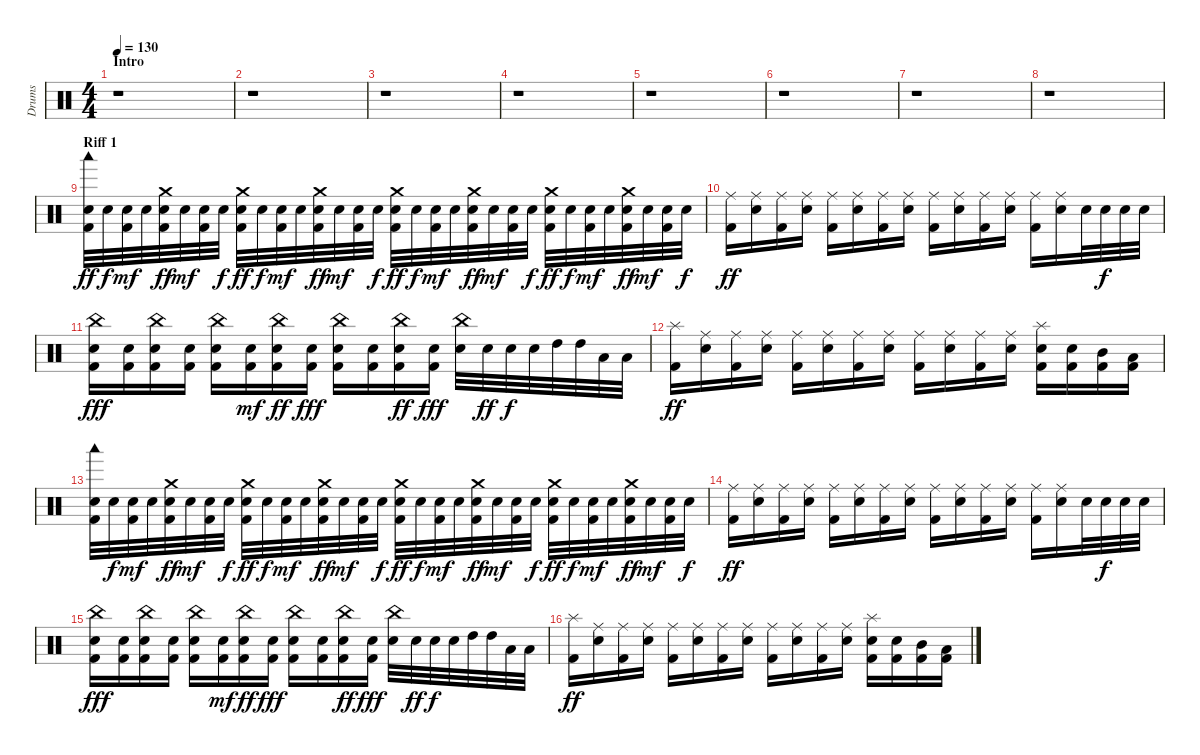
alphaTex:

\track ("Drums" "Drums") {instrument percussion}
\staff {score}
\articulation defaults
\ts (4 4)
\section ("" "Intro")
\tempo 130
\clef neutral
\ks c
r.1{dy ff} |
r.1 |
r.1 |
r.1 |
r.1 |
r.1 |
r.1 |
r.1 |
\section ("" "Riff 1")
("Kick (hit) 2" "Snare (hit) 2" "Woodblock low (hit)").32 "Snare (hit) 2".32{dy f} ("Kick (hit) 2" "Snare (hit) 2").32{dy mf} "Snare (hit) 2".32 ("Kick (hit) 2" "Snare (hit) 2" "Crash medium (hit)").32{dy ff} "Snare (hit) 2".32{dy mf} ("Kick (hit) 2" "Snare (hit) 2").32 "Snare (hit) 2".32{dy f} ("Kick (hit) 2" "Snare (hit) 2" "Crash medium (hit)").32{dy ff} "Snare (hit) 2".32{dy f} ("Kick (hit) 2" "Snare (hit) 2").32{dy mf} "Snare (hit) 2".32 ("Kick (hit) 2" "Snare (hit) 2" "Crash medium (hit)").32{dy ff} "Snare (hit) 2".32{dy mf} ("Kick (hit) 2" "Snare (hit) 2").32 "Snare (hit) 2".32{dy f} ("Kick (hit) 2" "Snare (hit) 2" "Crash medium (hit)").32{dy ff} "Snare (hit) 2".32{dy f} ("Kick (hit) 2" "Snare (hit) 2").32{dy mf} "Snare (hit) 2".32 ("Kick (hit) 2" "Snare (hit) 2" "Crash medium (hit)").32{dy ff} "Snare (hit) 2".32{dy mf} ("Kick (hit) 2" "Snare (hit) 2").32 "Snare (hit) 2".32{dy f} ("Kick (hit) 2" "Snare (hit) 2" "Crash medium (hit)").32{dy ff} "Snare (hit) 2".32{dy f} ("Kick (hit) 2" "Snare (hit) 2").32{dy mf} "Snare (hit) 2".32 ("Kick (hit) 2" "Snare (hit) 2" "Crash medium (hit)").32{dy ff} "Snare (hit) 2".32{dy mf} ("Kick (hit) 2" "Snare (hit) 2").32 "Snare (hit) 2".32{dy f} |
("Kick (hit) 2" "Ride (middle)").16{dy ff} ("Snare (hit) 2" "Ride (middle)").16 ("Kick (hit) 2" "Ride (middle)").16 ("Snare (hit) 2" "Ride (middle)").16 ("Kick (hit) 2" "Ride (middle)").16 ("Snare (hit) 2" "Ride (middle)").16 ("Kick (hit) 2" "Ride (middle)").16 ("Snare (hit) 2" "Ride (middle)").16 ("Kick (hit) 2" "Ride (middle)").16 ("Snare (hit) 2" "Ride (middle)").16 ("Kick (hit) 2" "Ride (middle)").16 ("Snare (hit) 2" "Ride (middle)").16 ("Kick (hit) 2" "Ride (middle)").16 ("Snare (hit) 2" "Ride (middle)").16 "Snare (hit) 2".32 "Snare (hit) 2".32{dy f} "Snare (hit) 2".32 "Snare (hit) 2".32 |
("Kick (hit) 2" "Snare (hit) 2" "China (hit)").16{dy fff} ("Kick (hit) 2" "Snare (hit) 2").16 ("Kick (hit) 2" "Snare (hit) 2" "China (hit)").16 ("Kick (hit) 2" "Snare (hit) 2").16 ("Kick (hit) 2" "Snare (hit) 2" "China (hit)").16 ("Kick (hit) 2" "Snare (hit) 2").16{dy mf} ("Kick (hit) 2" "Snare (hit) 2" "China (hit)").16{dy ff} ("Kick (hit) 2" "Snare (hit) 2").16{dy fff} ("Kick (hit) 2" "Snare (hit) 2" "China (hit)").16 ("Kick (hit) 2" "Snare (hit) 2").16 ("Kick (hit) 2" "Snare (hit) 2" "China (hit)").16{dy ff} ("Kick (hit) 2" "Snare (hit) 2").16{dy fff} ("Snare (hit) 2" "China (hit)").32 "Snare (hit) 2".32{dy ff} "Snare (hit) 2".32{dy f} "Snare (hit) 2".32 "High Tom (hit)".32 "High Tom (hit)".32 "Low Tom (hit)".32 "Low Tom (hit)".32 |
("Kick (hit) 2" "Splash (hit)").16{dy ff} ("Snare (hit) 2" "Ride (middle)").16 ("Kick (hit) 2" "Ride (middle)").16 ("Snare (hit) 2" "Ride (middle)").16 ("Kick (hit) 2" "Ride (middle)").16 ("Snare (hit) 2" "Ride (middle)").16 ("Kick (hit) 2" "Ride (middle)").16 ("Snare (hit) 2" "Ride (middle)").16 ("Kick (hit) 2" "Ride (middle)").16 ("Snare (hit) 2" "Ride (middle)").16 ("Kick (hit) 2" "Ride (middle)").16 ("Snare (hit) 2" "Ride (middle)").16 ("Kick (hit) 2" "Snare (hit) 2" "Splash (hit)").16 ("Kick (hit) 2" "Snare (hit) 2").16 ("Kick (hit) 2" "Mid Tom (hit)").16 ("Kick (hit) 2" "Low Tom (hit)").16 |
("Kick (hit) 2" "Snare (hit) 2" "Woodblock low (hit)").32 "Snare (hit) 2".32{dy f} ("Kick (hit) 2" "Snare (hit) 2").32{dy mf} "Snare (hit) 2".32 ("Kick (hit) 2" "Snare (hit) 2" "Crash medium (hit)").32{dy ff} "Snare (hit) 2".32{dy mf} ("Kick (hit) 2" "Snare (hit) 2").32 "Snare (hit) 2".32{dy f} ("Kick (hit) 2" "Snare (hit) 2" "Crash medium (hit)").32{dy ff} "Snare (hit) 2".32{dy f} ("Kick (hit) 2" "Snare (hit) 2").32{dy mf} "Snare (hit) 2".32 ("Kick (hit) 2" "Snare (hit) 2" "Crash medium (hit)").32{dy ff} "Snare (hit) 2".32{dy mf} ("Kick (hit) 2" "Snare (hit) 2").32 "Snare (hit) 2".32{dy f} ("Kick (hit) 2" "Snare (hit) 2" "Crash medium (hit)").32{dy ff} "Snare (hit) 2".32{dy f} ("Kick (hit) 2" "Snare (hit) 2").32{dy mf} "Snare (hit) 2".32 ("Kick (hit) 2" "Snare (hit) 2" "Crash medium (hit)").32{dy ff} "Snare (hit) 2".32{dy mf} ("Kick (hit) 2" "Snare (hit) 2").32 "Snare (hit) 2".32{dy f} ("Kick (hit) 2" "Snare (hit) 2" "Crash medium (hit)").32{dy ff} "Snare (hit) 2".32{dy f} ("Kick (hit) 2" "Snare (hit) 2").32{dy mf} "Snare (hit) 2".32 ("Kick (hit) 2" "Snare (hit) 2" "Crash medium (hit)").32{dy ff} "Snare (hit) 2".32{dy mf} ("Kick (hit) 2" "Snare (hit) 2").32 "Snare (hit) 2".32{dy f} |
("Kick (hit) 2" "Ride (middle)").16{dy ff} ("Snare (hit) 2" "Ride (middle)").16 ("Kick (hit) 2" "Ride (middle)").16 ("Snare (hit) 2" "Ride (middle)").16 ("Kick (hit) 2" "Ride (middle)").16 ("Snare (hit) 2" "Ride (middle)").16 ("Kick (hit) 2" "Ride (middle)").16 ("Snare (hit) 2" "Ride (middle)").16 ("Kick (hit) 2" "Ride (middle)").16 ("Snare (hit) 2" "Ride (middle)").16 ("Kick (hit) 2" "Ride (middle)").16 ("Snare (hit) 2" "Ride (middle)").16 ("Kick (hit) 2" "Ride (middle)").16 ("Snare (hit) 2" "Ride (middle)").16 "Snare (hit) 2".32 "Snare (hit) 2".32{dy f} "Snare (hit) 2".32 "Snare (hit) 2".32 |
("Kick (hit) 2" "Snare (hit) 2" "China (hit)").16{dy fff} ("Kick (hit) 2" "Snare (hit) 2").16 ("Kick (hit) 2" "Snare (hit) 2" "China (hit)").16 ("Kick (hit) 2" "Snare (hit) 2").16 ("Kick (hit) 2" "Snare (hit) 2" "China (hit)").16 ("Kick (hit) 2" "Snare (hit) 2").16{dy mf} ("Kick (hit) 2" "Snare (hit) 2" "China (hit)").16{dy ff} ("Kick (hit) 2" "Snare (hit) 2").16{dy fff} ("Kick (hit) 2" "Snare (hit) 2" "China (hit)").16 ("Kick (hit) 2" "Snare (hit) 2").16 ("Kick (hit) 2" "Snare (hit) 2" "China (hit)").16{dy ff} ("Kick (hit) 2" "Snare (hit) 2").16{dy fff} ("Snare (hit) 2" "China (hit)").32 "Snare (hit) 2".32{dy ff} "Snare (hit) 2".32{dy f} "Snare (hit) 2".32 "High Tom (hit)".32 "High Tom (hit)".32 "Low Tom (hit)".32 "Low Tom (hit)".32 |
("Kick (hit) 2" "Splash (hit)").16{dy ff} ("Snare (hit) 2" "Ride (middle)").16 ("Kick (hit) 2" "Ride (middle)").16 ("Snare (hit) 2" "Ride (middle)").16 ("Kick (hit) 2" "Ride (middle)").16 ("Snare (hit) 2" "Ride (middle)").16 ("Kick (hit) 2" "Ride (middle)").16 ("Snare (hit) 2" "Ride (middle)").16 ("Kick (hit) 2" "Ride (middle)").16 ("Snare (hit) 2" "Ride (middle)").16 ("Kick (hit) 2" "Ride (middle)").16 ("Snare (hit) 2" "Ride (middle)").16 ("Kick (hit) 2" "Snare (hit) 2" "Splash (hit)").16 ("Kick (hit) 2" "Snare (hit) 2").16 ("Kick (hit) 2" "Mid Tom (hit)").16 ("Kick (hit) 2" "Low Tom (hit)").16
